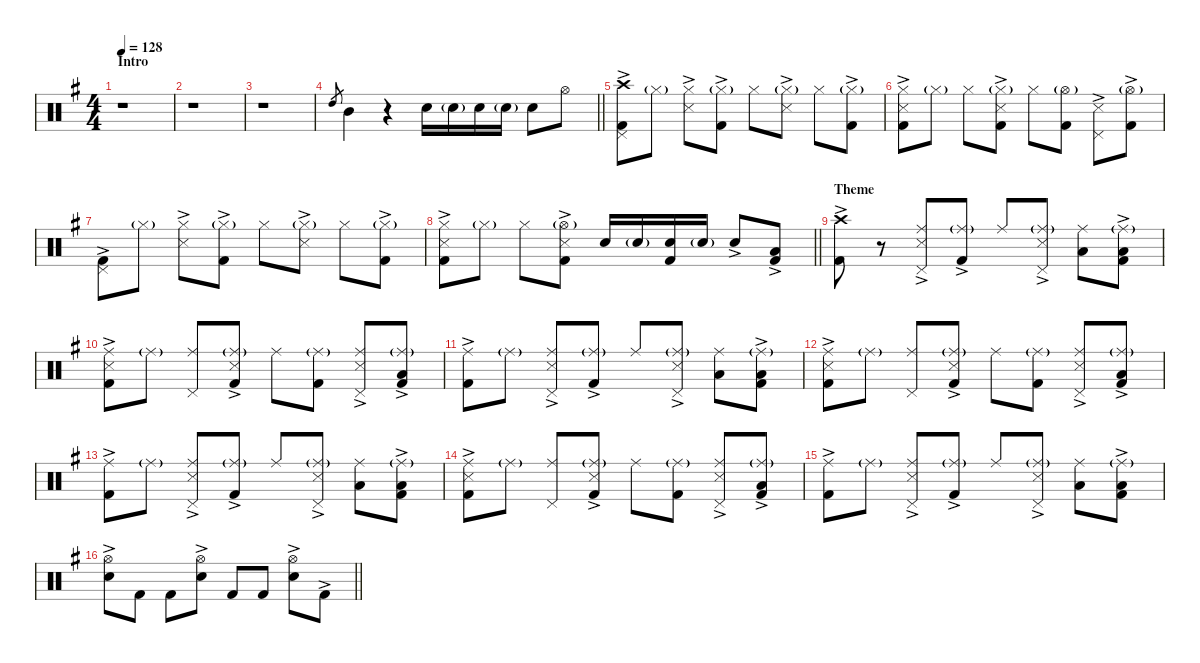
\defaultSystemsLayout 4
\hideDynamics
\bracketExtendMode nobrackets
\singleTrackTrackNamePolicy hidden
\multiTrackTrackNamePolicy hidden
\firstSystemTrackNameMode fullname
\firstSystemTrackNameOrientation horizontal
\otherSystemsTrackNameOrientation horizontal
\track ("Drums" "drm.") {instrument percussion}
\staff {score}
\articulation defaults
\ts (4 4)
\beaming (8 2 2 2 2)
\section ("" "Intro")
\tempo 128
\clef neutral
\ks g
r.1{dy mf beam Down} |
r.1{beam Down} |
r.1{beam Down} |
\barLineRight lightlight "High Tom (hit)"{acc forcenatural}.8{gr beam Up} "Mid Tom (hit)"{acc forcenatural}.4{dy f beam Down}
r.4{beam Down} "Snare (hit) 2"{acc forcenatural}.16{dy fff beam Down} "Snare (hit) 2"{g acc forcenatural}.16{dy ff beam Down} "Snare (hit) 2"{acc forcenatural}.16{dy fff beam Down} "Snare (hit) 2"{g acc forcenatural}.16{dy ff beam Down} "Snare (hit) 2"{acc forcenatural}.8{dy fff beam Down} "Hi-Hat (open)"{acc forcenatural}.8{dy f beam Down} |
("Crash high (hit)"{acc forcenatural} "Pedal Hi-Hat (hit)"{acc forcenatural} "Kick (hit) 2"{ac acc forcenatural}).8{beam Down} "Hi-Hat (closed)"{g acc forcenatural}.8{dy mf beam Down} ("Hi-Hat (closed)"{acc forcenatural} "Snare (side stick) 3"{ac acc forcenatural}).8{dy f beam Down} ("Hi-Hat (closed)"{g acc forcenatural} "Kick (hit) 2"{ac acc forcenatural}).8{dy mf beam Down} "Hi-Hat (closed)"{acc forcenatural}.8{dy f beam Down} ("Hi-Hat (closed)"{g acc forcenatural} "Snare (side stick) 3"{ac acc forcenatural}).8{dy mf beam Down} "Hi-Hat (closed)"{acc forcenatural}.8{dy f beam Down} ("Hi-Hat (closed)"{g acc forcenatural} "Kick (hit) 2"{ac acc forcenatural}).8{dy mf beam Down} |
("Hi-Hat (closed)"{acc forcenatural} "Snare (side stick) 3"{ac acc forcenatural} "Kick (hit) 2"{ac acc forcenatural}).8{dy f beam Down} "Hi-Hat (closed)"{g acc forcenatural}.8{dy mf beam Down} "Hi-Hat (closed)"{acc forcenatural}.8{dy f beam Down} ("Hi-Hat (closed)"{g acc forcenatural} "Snare (side stick) 3"{ac acc forcenatural} "Kick (hit) 2"{ac acc forcenatural}).8{dy mf beam Down} "Hi-Hat (closed)"{acc forcenatural}.8{dy f beam Down} ("Hi-Hat (open)"{g acc forcenatural} "Kick (hit) 2"{acc forcenatural}).8{beam Down} ("Pedal Hi-Hat (hit)"{acc forcenatural} "Snare (side stick) 3"{ac acc forcenatural}).8{beam Down} ("Hi-Hat (open)"{g acc forcenatural} "Kick (hit) 2"{ac acc forcenatural}).8{dy mf beam Down} |
("Pedal Hi-Hat (hit)"{acc forcenatural} "Kick (hit) 2"{ac acc forcenatural}).8{dy f beam Down} "Hi-Hat (closed)"{g acc forcenatural}.8{dy mf beam Down} ("Hi-Hat (closed)"{acc forcenatural} "Snare (side stick) 3"{ac acc forcenatural}).8{dy f beam Down} ("Hi-Hat (closed)"{g acc forcenatural} "Kick (hit) 2"{ac acc forcenatural}).8{dy mf beam Down} "Hi-Hat (closed)"{acc forcenatural}.8{dy f beam Down} ("Hi-Hat (closed)"{g acc forcenatural} "Snare (side stick) 3"{ac acc forcenatural}).8{dy mf beam Down} "Hi-Hat (closed)"{acc forcenatural}.8{dy f beam Down} ("Hi-Hat (closed)"{g acc forcenatural} "Kick (hit) 2"{ac acc forcenatural}).8{dy mf beam Down} |
\barLineRight lightlight
("Hi-Hat (closed)"{acc forcenatural} "Snare (side stick) 3"{ac acc forcenatural} "Kick (hit) 2"{ac acc forcenatural}).8{dy f beam Down} "Hi-Hat (closed)"{g acc forcenatural}.8{dy mf beam Down} "Hi-Hat (closed)"{acc forcenatural}.8{dy f beam Down} ("Hi-Hat (open)"{g acc forcenatural} "Snare (side stick) 3"{ac acc forcenatural} "Kick (hit) 2"{ac acc forcenatural}).8{dy mf beam Down} "Snare (hit) 2"{acc forcenatural}.16{dy f beam Up} "Snare (hit) 2"{g acc forcenatural}.16{dy mf beam Up} ("Snare (hit) 2"{acc forcenatural} "Kick (hit) 2"{acc forcenatural}).16{dy f beam Up} "Snare (hit) 2"{g acc forcenatural}.16{dy mf beam Up} "Snare (hit) 2"{ac acc forcenatural}.8{dy f beam Up} ("Low Tom (hit)"{acc forcenatural} "Kick (hit) 2"{ac acc forcenatural}).8{beam Up} |
\section ("" "Theme")
("Crash high (hit)"{acc forcenatural} "Kick (hit) 2"{ac acc forcenatural}).8{beam Down} r.8{beam Down} ("Ride (middle)"{acc forcenatural} "Pedal Hi-Hat (hit)"{acc forcenatural} "Snare (side stick) 3"{ac acc forcenatural}).8{beam Up} ("Ride (middle)"{g acc forcenatural} "Kick (hit) 2"{ac acc forcenatural}).8{dy mf beam Up} "Ride (middle)"{acc forcenatural}.8{dy f beam Up} ("Ride (middle)"{g acc forcenatural} "Pedal Hi-Hat (hit)"{acc forcenatural} "Snare (side stick) 3"{ac acc forcenatural}).8{beam Up} ("Ride (middle)"{acc forcenatural} "Low Tom (hit)"{acc forcenatural}).8{beam Down} ("Ride (middle)"{g acc forcenatural} "Low Floor Tom (hit)"{acc forcenatural} "Kick (hit) 2"{ac acc forcenatural}).8{beam Down} |
("Ride (middle)"{acc forcenatural} "Snare (side stick) 3"{ac acc forcenatural} "Kick (hit) 2"{ac acc forcenatural}).8{beam Down} "Ride (middle)"{g acc forcenatural}.8{dy mf beam Down} ("Ride (middle)"{acc forcenatural} "Pedal Hi-Hat (hit)"{acc forcenatural}).8{dy f beam Up} ("Ride (middle)"{g acc forcenatural} "Snare (side stick) 3"{ac acc forcenatural} "Kick (hit) 2"{ac acc forcenatural}).8{dy mf beam Up} "Ride (middle)"{acc forcenatural}.8{dy f beam Down} ("Ride (middle)"{g acc forcenatural} "Kick (hit) 2"{acc forcenatural}).8{beam Down} ("Ride (middle)"{acc forcenatural} "Pedal Hi-Hat (hit)"{acc forcenatural} "Snare (side stick) 3"{ac acc forcenatural}).8{beam Up} ("Ride (middle)"{g acc forcenatural} "Low Floor Tom (hit)"{acc forcenatural} "Kick (hit) 2"{ac acc forcenatural}).8{beam Up} |
("Ride (middle)"{acc forcenatural} "Kick (hit) 2"{ac acc forcenatural}).8{beam Down} "Ride (middle)"{g acc forcenatural}.8{dy mf beam Down} ("Ride (middle)"{acc forcenatural} "Pedal Hi-Hat (hit)"{acc forcenatural} "Snare (side stick) 3"{ac acc forcenatural}).8{dy f beam Up} ("Ride (middle)"{g acc forcenatural} "Kick (hit) 2"{ac acc forcenatural}).8{dy mf beam Up} "Ride (middle)"{acc forcenatural}.8{dy f beam Up} ("Ride (middle)"{g acc forcenatural} "Pedal Hi-Hat (hit)"{acc forcenatural} "Snare (side stick) 3"{ac acc forcenatural}).8{beam Up} ("Ride (middle)"{acc forcenatural} "Low Tom (hit)"{acc forcenatural}).8{beam Down} ("Ride (middle)"{g acc forcenatural} "Low Floor Tom (hit)"{acc forcenatural} "Kick (hit) 2"{ac acc forcenatural}).8{beam Down} |
("Ride (middle)"{acc forcenatural} "Snare (side stick) 3"{ac acc forcenatural} "Kick (hit) 2"{ac acc forcenatural}).8{beam Down} "Ride (middle)"{g acc forcenatural}.8{dy mf beam Down} ("Ride (middle)"{acc forcenatural} "Pedal Hi-Hat (hit)"{acc forcenatural}).8{dy f beam Up} ("Ride (middle)"{g acc forcenatural} "Snare (side stick) 3"{ac acc forcenatural} "Kick (hit) 2"{ac acc forcenatural}).8{dy mf beam Up} "Ride (middle)"{acc forcenatural}.8{dy f beam Down} ("Ride (middle)"{g acc forcenatural} "Kick (hit) 2"{acc forcenatural}).8{beam Down} ("Ride (middle)"{acc forcenatural} "Pedal Hi-Hat (hit)"{acc forcenatural} "Snare (side stick) 3"{ac acc forcenatural}).8{beam Up} ("Ride (middle)"{g acc forcenatural} "Low Floor Tom (hit)"{acc forcenatural} "Kick (hit) 2"{ac acc forcenatural}).8{beam Up} |
("Ride (middle)"{acc forcenatural} "Kick (hit) 2"{ac acc forcenatural}).8{beam Down} "Ride (middle)"{g acc forcenatural}.8{dy mf beam Down} ("Ride (middle)"{acc forcenatural} "Pedal Hi-Hat (hit)"{acc forcenatural} "Snare (side stick) 3"{ac acc forcenatural}).8{dy f beam Up} ("Ride (middle)"{g acc forcenatural} "Kick (hit) 2"{ac acc forcenatural}).8{dy mf beam Up} "Ride (middle)"{acc forcenatural}.8{dy f beam Up} ("Ride (middle)"{g acc forcenatural} "Pedal Hi-Hat (hit)"{acc forcenatural} "Snare (side stick) 3"{ac acc forcenatural}).8{beam Up} ("Ride (middle)"{acc forcenatural} "Low Tom (hit)"{acc forcenatural}).8{beam Down} ("Ride (middle)"{g acc forcenatural} "Low Floor Tom (hit)"{acc forcenatural} "Kick (hit) 2"{ac acc forcenatural}).8{beam Down} |
("Ride (middle)"{acc forcenatural} "Snare (side stick) 3"{ac acc forcenatural} "Kick (hit) 2"{ac acc forcenatural}).8{beam Down} "Ride (middle)"{g acc forcenatural}.8{dy mf beam Down} ("Ride (middle)"{acc forcenatural} "Pedal Hi-Hat (hit)"{acc forcenatural}).8{dy f beam Up} ("Ride (middle)"{g acc forcenatural} "Snare (side stick) 3"{ac acc forcenatural} "Kick (hit) 2"{ac acc forcenatural}).8{dy mf beam Up} "Ride (middle)"{acc forcenatural}.8{dy f beam Down} ("Ride (middle)"{g acc forcenatural} "Kick (hit) 2"{acc forcenatural}).8{beam Down} ("Ride (middle)"{acc forcenatural} "Pedal Hi-Hat (hit)"{acc forcenatural} "Snare (side stick) 3"{ac acc forcenatural}).8{beam Up} ("Ride (middle)"{g acc forcenatural} "Low Floor Tom (hit)"{acc forcenatural} "Kick (hit) 2"{ac acc forcenatural}).8{beam Up} |
("Ride (middle)"{acc forcenatural} "Kick (hit) 2"{ac acc forcenatural}).8{beam Down} "Ride (middle)"{g acc forcenatural}.8{dy mf beam Down} ("Ride (middle)"{acc forcenatural} "Pedal Hi-Hat (hit)"{acc forcenatural} "Snare (side stick) 3"{ac acc forcenatural}).8{dy f beam Up} ("Ride (middle)"{g acc forcenatural} "Kick (hit) 2"{ac acc forcenatural}).8{dy mf beam Up} "Ride (middle)"{acc forcenatural}.8{dy f beam Up} ("Ride (middle)"{g acc forcenatural} "Pedal Hi-Hat (hit)"{acc forcenatural} "Snare (side stick) 3"{ac acc forcenatural}).8{beam Up} ("Ride (middle)"{acc forcenatural} "Low Tom (hit)"{acc forcenatural}).8{beam Down} ("Ride (middle)"{g acc forcenatural} "Low Floor Tom (hit)"{acc forcenatural} "Kick (hit) 2"{ac acc forcenatural}).8{beam Down} |
\barLineRight lightlight
("Hi-Hat (open)"{acc forcenatural} "Snare (hit) 2"{ac acc forcenatural}).8{beam Down} "Kick (hit) 2"{acc forcenatural}.8{beam Down} "Kick (hit) 2"{acc forcenatural}.8{beam Down} ("Hi-Hat (open)"{acc forcenatural} "Snare (hit) 2"{ac acc forcenatural}).8{beam Down} "Kick (hit) 2"{acc forcenatural}.8{beam Up} "Kick (hit) 2"{acc forcenatural}.8{beam Up} ("Hi-Hat (open)"{acc forcenatural} "Snare (hit) 2"{ac acc forcenatural}).8{beam Down} "Kick (hit) 2"{ac acc forcenatural}.8{beam Down}
